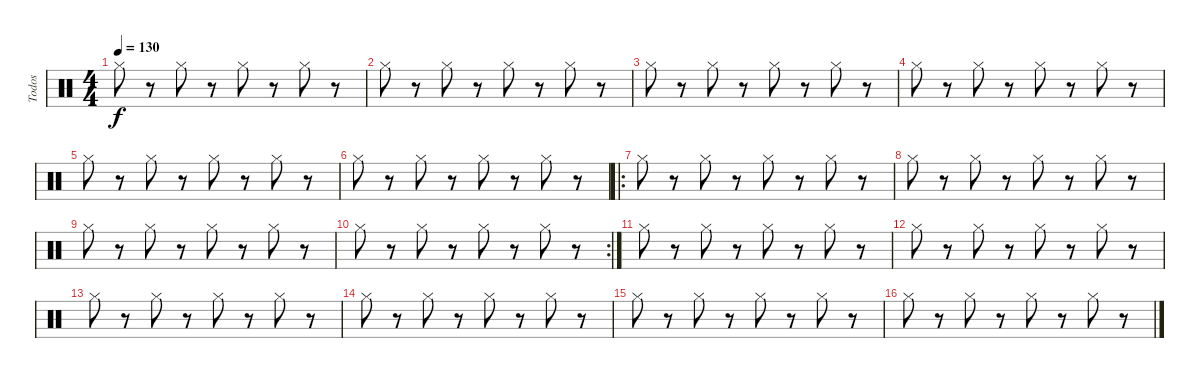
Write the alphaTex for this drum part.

\track ("Todos" "Todos") {instrument percussion}
\staff {score}
\articulation defaults
\ts (4 4)
\tempo 130
\clef neutral
\ks c "Hi-Hat (closed)".8{dy f}
r.8 "Hi-Hat (closed)".8 r.8 "Hi-Hat (closed)".8 r.8 "Hi-Hat (closed)".8 r.8 |
"Hi-Hat (closed)".8 r.8 "Hi-Hat (closed)".8 r.8 "Hi-Hat (closed)".8 r.8 "Hi-Hat (closed)".8 r.8 |
"Hi-Hat (closed)".8 r.8 "Hi-Hat (closed)".8 r.8 "Hi-Hat (closed)".8 r.8 "Hi-Hat (closed)".8 r.8 |
"Hi-Hat (closed)".8 r.8 "Hi-Hat (closed)".8 r.8 "Hi-Hat (closed)".8 r.8 "Hi-Hat (closed)".8 r.8 |
"Hi-Hat (closed)".8 r.8 "Hi-Hat (closed)".8 r.8 "Hi-Hat (closed)".8 r.8 "Hi-Hat (closed)".8 r.8 |
"Hi-Hat (closed)".8 r.8 "Hi-Hat (closed)".8 r.8 "Hi-Hat (closed)".8 r.8 "Hi-Hat (closed)".8 r.8 |
\ro "Hi-Hat (closed)".8
r.8 "Hi-Hat (closed)".8 r.8 "Hi-Hat (closed)".8 r.8 "Hi-Hat (closed)".8 r.8 |
"Hi-Hat (closed)".8 r.8 "Hi-Hat (closed)".8 r.8 "Hi-Hat (closed)".8 r.8 "Hi-Hat (closed)".8 r.8 |
"Hi-Hat (closed)".8 r.8 "Hi-Hat (closed)".8 r.8 "Hi-Hat (closed)".8 r.8 "Hi-Hat (closed)".8 r.8 |
\rc 2 "Hi-Hat (closed)".8
r.8 "Hi-Hat (closed)".8 r.8 "Hi-Hat (closed)".8 r.8 "Hi-Hat (closed)".8 r.8 |
"Hi-Hat (closed)".8 r.8 "Hi-Hat (closed)".8 r.8 "Hi-Hat (closed)".8 r.8 "Hi-Hat (closed)".8 r.8 |
"Hi-Hat (closed)".8 r.8 "Hi-Hat (closed)".8 r.8 "Hi-Hat (closed)".8 r.8 "Hi-Hat (closed)".8 r.8 |
"Hi-Hat (closed)".8 r.8 "Hi-Hat (closed)".8 r.8 "Hi-Hat (closed)".8 r.8 "Hi-Hat (closed)".8 r.8 |
"Hi-Hat (closed)".8 r.8 "Hi-Hat (closed)".8 r.8 "Hi-Hat (closed)".8 r.8 "Hi-Hat (closed)".8 r.8 |
"Hi-Hat (closed)".8 r.8 "Hi-Hat (closed)".8 r.8 "Hi-Hat (closed)".8 r.8 "Hi-Hat (closed)".8 r.8 |
"Hi-Hat (closed)".8 r.8 "Hi-Hat (closed)".8 r.8 "Hi-Hat (closed)".8 r.8 "Hi-Hat (closed)".8 r.8
